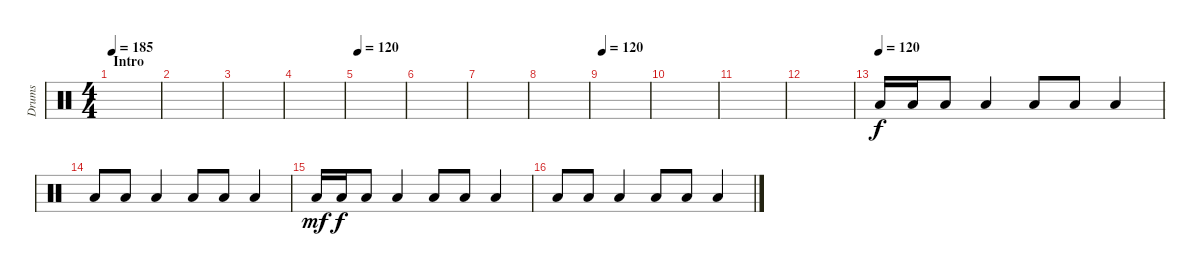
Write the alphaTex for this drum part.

\track ("Drums" "Drums") {instrument percussion}
\staff {score}
\articulation defaults
\ts (4 4)
\section ("" "Intro")
\tempo 185
\tempo 120
\tempo 185
\clef neutral
\ks c
|
|
|
|
\tempo 120
|
|
|
|
\tempo 120
|
|
|
|
\tempo (120)
"Low Floor Tom (hit)".16 "Low Floor Tom (hit)".16{dy f} "Low Floor Tom (hit)".8 "Low Floor Tom (hit)".4 "Low Floor Tom (hit)".8 "Low Floor Tom (hit)".8 "Low Floor Tom (hit)".4 |
"Low Floor Tom (hit)".8 "Low Floor Tom (hit)".8 "Low Floor Tom (hit)".4 "Low Floor Tom (hit)".8 "Low Floor Tom (hit)".8 "Low Floor Tom (hit)".4 |
"Low Floor Tom (hit)".16{dy mf} "Low Floor Tom (hit)".16{dy f} "Low Floor Tom (hit)".8 "Low Floor Tom (hit)".4 "Low Floor Tom (hit)".8 "Low Floor Tom (hit)".8 "Low Floor Tom (hit)".4 |
"Low Floor Tom (hit)".8 "Low Floor Tom (hit)".8 "Low Floor Tom (hit)".4 "Low Floor Tom (hit)".8 "Low Floor Tom (hit)".8 "Low Floor Tom (hit)".4
